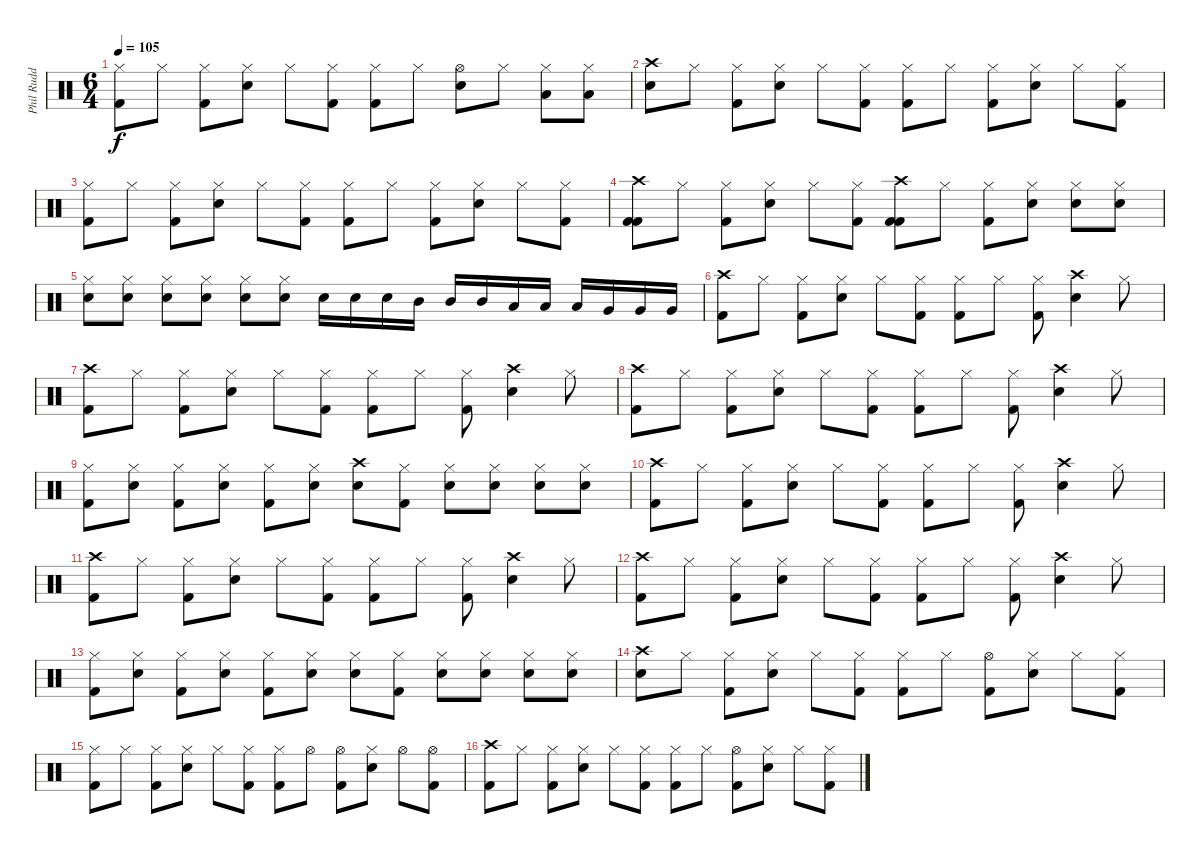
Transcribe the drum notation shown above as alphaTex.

\track ("Phil Rudd" "Phil Rudd") {instrument percussion}
\staff {score}
\articulation defaults
\ts (6 4)
\tempo 105
\clef neutral
\ks c
("Hi-Hat (closed)" "Kick (hit) 2").8{dy f} "Hi-Hat (closed)".8 ("Hi-Hat (closed)" "Kick (hit) 2").8 ("Hi-Hat (closed)" "Electric Snare (hit)").8 "Hi-Hat (closed)".8 ("Hi-Hat (closed)" "Kick (hit) 2").8 ("Hi-Hat (closed)" "Kick (hit) 2").8 "Hi-Hat (closed)".8 ("Hi-Hat (open)" "Electric Snare (hit)").8 "Hi-Hat (closed)".8 ("Hi-Hat (closed)" "Low Tom (hit)").8 ("Hi-Hat (closed)" "Low Tom (hit)").8 |
("Crash high (hit)" "Electric Snare (hit)").8 "Hi-Hat (closed)".8 ("Hi-Hat (closed)" "Kick (hit) 2").8 ("Hi-Hat (closed)" "Electric Snare (hit)").8 "Hi-Hat (closed)".8 ("Hi-Hat (closed)" "Kick (hit) 2").8 ("Hi-Hat (closed)" "Kick (hit) 2").8 "Hi-Hat (closed)".8 ("Hi-Hat (closed)" "Kick (hit) 2").8 ("Hi-Hat (closed)" "Electric Snare (hit)").8 "Hi-Hat (closed)".8 ("Hi-Hat (closed)" "Kick (hit) 2").8 |
("Hi-Hat (closed)" "Kick (hit) 2").8 "Hi-Hat (closed)".8 ("Hi-Hat (closed)" "Kick (hit) 2").8 ("Hi-Hat (closed)" "Electric Snare (hit)").8 "Hi-Hat (closed)".8 ("Hi-Hat (closed)" "Kick (hit) 2").8 ("Hi-Hat (closed)" "Kick (hit) 2").8 "Hi-Hat (closed)".8 ("Hi-Hat (closed)" "Kick (hit) 2").8 ("Hi-Hat (closed)" "Electric Snare (hit)").8 "Hi-Hat (closed)".8 ("Hi-Hat (closed)" "Kick (hit) 2").8 |
("Crash high (hit)" "Kick (hit) 2" "Kick (hit) 2").8 "Hi-Hat (closed)".8 ("Hi-Hat (closed)" "Kick (hit) 2").8 ("Hi-Hat (closed)" "Electric Snare (hit)").8 "Hi-Hat (closed)".8 ("Hi-Hat (closed)" "Kick (hit) 2").8 ("Crash high (hit)" "Kick (hit) 2" "Kick (hit) 2").8 "Hi-Hat (closed)".8 ("Hi-Hat (closed)" "Kick (hit) 2").8 ("Hi-Hat (closed)" "Electric Snare (hit)").8 ("Hi-Hat (closed)" "Electric Snare (hit)").8 ("Hi-Hat (closed)" "Electric Snare (hit)").8 |
("Hi-Hat (closed)" "Electric Snare (hit)").8 ("Hi-Hat (closed)" "Electric Snare (hit)").8 ("Hi-Hat (closed)" "Electric Snare (hit)").8 ("Hi-Hat (closed)" "Electric Snare (hit)").8 ("Hi-Hat (closed)" "Electric Snare (hit)").8 ("Hi-Hat (closed)" "Electric Snare (hit)").8 "Electric Snare (hit)".16 "Electric Snare (hit)".16 "Electric Snare (hit)".16 "Mid Tom (hit)".16 "Mid Tom (hit)".16 "Mid Tom (hit)".16 "Low Tom (hit)".16 "Low Tom (hit)".16 "Low Tom (hit)".16 "Very Low Tom (hit)".16 "Very Low Tom (hit)".16 "Very Low Tom (hit)".16 |
("Crash high (hit)" "Kick (hit) 2").8 "Hi-Hat (closed)".8 ("Hi-Hat (closed)" "Kick (hit) 2").8 ("Hi-Hat (closed)" "Electric Snare (hit)").8 "Hi-Hat (closed)".8 ("Hi-Hat (closed)" "Kick (hit) 2").8 ("Hi-Hat (closed)" "Kick (hit) 2").8 "Hi-Hat (closed)".8 ("Hi-Hat (closed)" "Kick (hit) 2").8 ("Crash high (hit)" "Electric Snare (hit)").4 "Hi-Hat (closed)".8 |
("Crash high (hit)" "Kick (hit) 2").8 "Hi-Hat (closed)".8 ("Hi-Hat (closed)" "Kick (hit) 2").8 ("Hi-Hat (closed)" "Electric Snare (hit)").8 "Hi-Hat (closed)".8 ("Hi-Hat (closed)" "Kick (hit) 2").8 ("Hi-Hat (closed)" "Kick (hit) 2").8 "Hi-Hat (closed)".8 ("Hi-Hat (closed)" "Kick (hit) 2").8 ("Crash high (hit)" "Electric Snare (hit)").4 "Hi-Hat (closed)".8 |
("Crash high (hit)" "Kick (hit) 2").8 "Hi-Hat (closed)".8 ("Hi-Hat (closed)" "Kick (hit) 2").8 ("Hi-Hat (closed)" "Electric Snare (hit)").8 "Hi-Hat (closed)".8 ("Hi-Hat (closed)" "Kick (hit) 2").8 ("Hi-Hat (closed)" "Kick (hit) 2").8 "Hi-Hat (closed)".8 ("Hi-Hat (closed)" "Kick (hit) 2").8 ("Crash high (hit)" "Electric Snare (hit)").4 "Hi-Hat (closed)".8 |
("Hi-Hat (closed)" "Kick (hit) 2").8 ("Hi-Hat (closed)" "Electric Snare (hit)").8 ("Hi-Hat (closed)" "Kick (hit) 2").8 ("Hi-Hat (closed)" "Electric Snare (hit)").8 ("Hi-Hat (closed)" "Kick (hit) 2").8 ("Hi-Hat (closed)" "Electric Snare (hit)").8 ("Crash high (hit)" "Electric Snare (hit)").8 ("Hi-Hat (closed)" "Kick (hit) 2").8 ("Hi-Hat (closed)" "Electric Snare (hit)").8 ("Hi-Hat (closed)" "Electric Snare (hit)").8 ("Hi-Hat (closed)" "Electric Snare (hit)").8 ("Hi-Hat (closed)" "Electric Snare (hit)").8 |
("Crash high (hit)" "Kick (hit) 2").8 "Hi-Hat (closed)".8 ("Hi-Hat (closed)" "Kick (hit) 2").8 ("Hi-Hat (closed)" "Electric Snare (hit)").8 "Hi-Hat (closed)".8 ("Hi-Hat (closed)" "Kick (hit) 2").8 ("Hi-Hat (closed)" "Kick (hit) 2").8 "Hi-Hat (closed)".8 ("Hi-Hat (closed)" "Kick (hit) 2").8 ("Crash high (hit)" "Electric Snare (hit)").4 "Hi-Hat (closed)".8 |
("Crash high (hit)" "Kick (hit) 2").8 "Hi-Hat (closed)".8 ("Hi-Hat (closed)" "Kick (hit) 2").8 ("Hi-Hat (closed)" "Electric Snare (hit)").8 "Hi-Hat (closed)".8 ("Hi-Hat (closed)" "Kick (hit) 2").8 ("Hi-Hat (closed)" "Kick (hit) 2").8 "Hi-Hat (closed)".8 ("Hi-Hat (closed)" "Kick (hit) 2").8 ("Crash high (hit)" "Electric Snare (hit)").4 "Hi-Hat (closed)".8 |
("Crash high (hit)" "Kick (hit) 2").8 "Hi-Hat (closed)".8 ("Hi-Hat (closed)" "Kick (hit) 2").8 ("Hi-Hat (closed)" "Electric Snare (hit)").8 "Hi-Hat (closed)".8 ("Hi-Hat (closed)" "Kick (hit) 2").8 ("Hi-Hat (closed)" "Kick (hit) 2").8 "Hi-Hat (closed)".8 ("Hi-Hat (closed)" "Kick (hit) 2").8 ("Crash high (hit)" "Electric Snare (hit)").4 "Hi-Hat (closed)".8 |
("Hi-Hat (closed)" "Kick (hit) 2").8 ("Hi-Hat (closed)" "Electric Snare (hit)").8 ("Hi-Hat (closed)" "Kick (hit) 2").8 ("Hi-Hat (closed)" "Electric Snare (hit)").8 ("Hi-Hat (closed)" "Kick (hit) 2").8 ("Hi-Hat (closed)" "Electric Snare (hit)").8 ("Hi-Hat (closed)" "Electric Snare (hit)").8 ("Hi-Hat (closed)" "Kick (hit) 2").8 ("Hi-Hat (closed)" "Electric Snare (hit)").8 ("Hi-Hat (closed)" "Electric Snare (hit)").8 ("Hi-Hat (closed)" "Electric Snare (hit)").8 ("Hi-Hat (closed)" "Electric Snare (hit)").8 |
("Crash high (hit)" "Electric Snare (hit)").8 "Hi-Hat (closed)".8 ("Hi-Hat (closed)" "Kick (hit) 2").8 ("Hi-Hat (closed)" "Electric Snare (hit)").8 "Hi-Hat (closed)".8 ("Hi-Hat (closed)" "Kick (hit) 2").8 ("Hi-Hat (closed)" "Kick (hit) 2").8 "Hi-Hat (closed)".8 ("Hi-Hat (open)" "Kick (hit) 2").8 ("Hi-Hat (closed)" "Electric Snare (hit)").8 "Hi-Hat (closed)".8 ("Hi-Hat (closed)" "Kick (hit) 2").8 |
("Hi-Hat (closed)" "Kick (hit) 2").8 "Hi-Hat (closed)".8 ("Hi-Hat (closed)" "Kick (hit) 2").8 ("Hi-Hat (closed)" "Electric Snare (hit)").8 "Hi-Hat (closed)".8 ("Hi-Hat (closed)" "Kick (hit) 2").8 ("Hi-Hat (closed)" "Kick (hit) 2").8 "Hi-Hat (open)".8 ("Hi-Hat (open)" "Kick (hit) 2").8 ("Hi-Hat (closed)" "Electric Snare (hit)").8 "Hi-Hat (open)".8 ("Hi-Hat (open)" "Kick (hit) 2").8 |
("Crash high (hit)" "Kick (hit) 2").8 "Hi-Hat (closed)".8 ("Hi-Hat (closed)" "Kick (hit) 2").8 ("Hi-Hat (closed)" "Electric Snare (hit)").8 "Hi-Hat (closed)".8 ("Hi-Hat (closed)" "Kick (hit) 2").8 ("Hi-Hat (closed)" "Kick (hit) 2").8 "Hi-Hat (closed)".8 ("Hi-Hat (open)" "Kick (hit) 2").8 ("Hi-Hat (closed)" "Electric Snare (hit)").8 "Hi-Hat (closed)".8 ("Hi-Hat (closed)" "Kick (hit) 2").8
